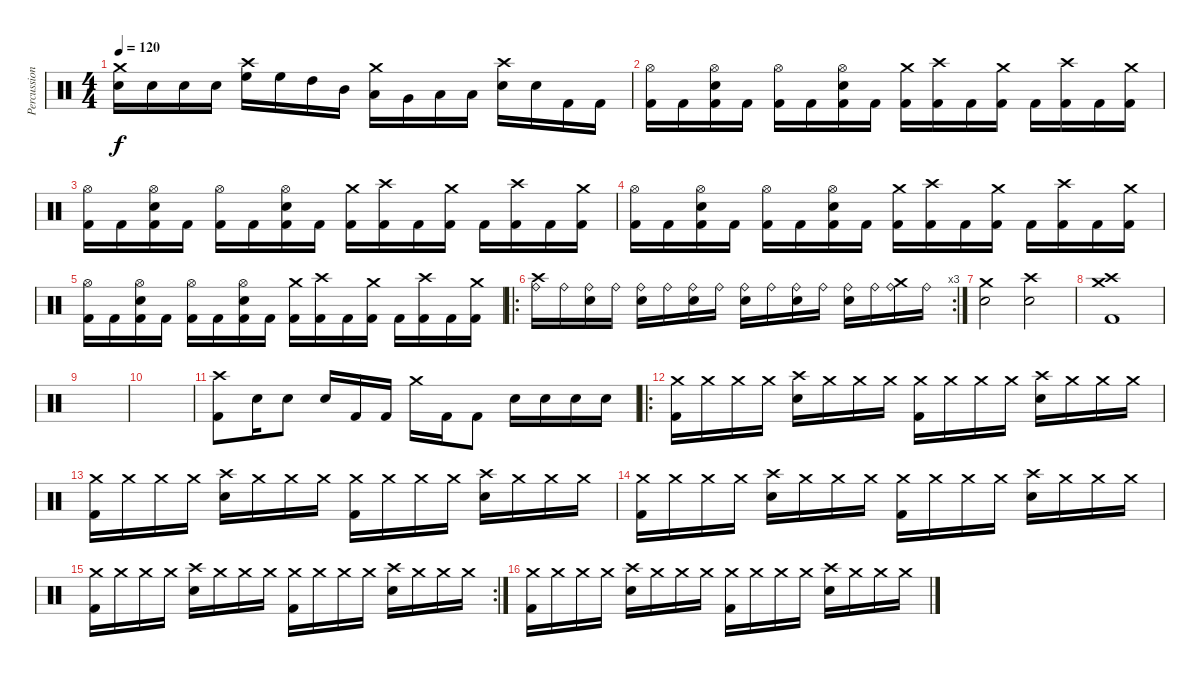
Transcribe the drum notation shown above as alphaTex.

\track ("Percussion" "Percussion") {instrument percussion}
\staff {score}
\articulation defaults
\ts (4 4)
\tempo 120
\clef neutral
\ks c
("Crash medium (hit)" "Electric Snare (hit)").16{dy f} "Electric Snare (hit)".16 "Electric Snare (hit)".16 "Electric Snare (hit)".16 ("Crash high (hit)" "High Floor Tom (hit)").16 "High Floor Tom (hit)".16 "High Tom (hit)".16 "Mid Tom (hit)".16 ("Crash medium (hit)" "Low Tom (hit)").16 "Very Low Tom (hit)".16 "Low Floor Tom (hit)".16 "Low Floor Tom (hit)".16 ("Crash high (hit)" "Electric Snare (hit)").16 "Electric Snare (hit)".16 "Kick (hit) 2".16 "Kick (hit) 2".16 |
("Hi-Hat (open)" "Kick (hit) 2").16 "Kick (hit) 2".16 ("Hi-Hat (open)" "Snare (hit) 2" "Kick (hit) 2").16 "Kick (hit) 2".16 ("Hi-Hat (open)" "Kick (hit) 2").16 "Kick (hit) 2".16 ("Hi-Hat (open)" "Snare (hit) 2" "Kick (hit) 2").16 "Kick (hit) 2".16 ("Crash medium (hit)" "Kick (hit) 2").16 ("Crash high (hit)" "Kick (hit) 2").16 "Kick (hit) 2".16 ("Crash medium (hit)" "Kick (hit) 2").16 "Kick (hit) 2".16 ("Crash high (hit)" "Kick (hit) 2").16 "Kick (hit) 2".16 ("Crash medium (hit)" "Kick (hit) 2").16 |
("Hi-Hat (open)" "Kick (hit) 2").16 "Kick (hit) 2".16 ("Hi-Hat (open)" "Snare (hit) 2" "Kick (hit) 2").16 "Kick (hit) 2".16 ("Hi-Hat (open)" "Kick (hit) 2").16 "Kick (hit) 2".16 ("Hi-Hat (open)" "Snare (hit) 2" "Kick (hit) 2").16 "Kick (hit) 2".16 ("Crash medium (hit)" "Kick (hit) 2").16 ("Crash high (hit)" "Kick (hit) 2").16 "Kick (hit) 2".16 ("Crash medium (hit)" "Kick (hit) 2").16 "Kick (hit) 2".16 ("Crash high (hit)" "Kick (hit) 2").16 "Kick (hit) 2".16 ("Crash medium (hit)" "Kick (hit) 2").16 |
("Hi-Hat (open)" "Kick (hit) 2").16 "Kick (hit) 2".16 ("Hi-Hat (open)" "Snare (hit) 2" "Kick (hit) 2").16 "Kick (hit) 2".16 ("Hi-Hat (open)" "Kick (hit) 2").16 "Kick (hit) 2".16 ("Hi-Hat (open)" "Snare (hit) 2" "Kick (hit) 2").16 "Kick (hit) 2".16 ("Crash medium (hit)" "Kick (hit) 2").16 ("Crash high (hit)" "Kick (hit) 2").16 "Kick (hit) 2".16 ("Crash medium (hit)" "Kick (hit) 2").16 "Kick (hit) 2".16 ("Crash high (hit)" "Kick (hit) 2").16 "Kick (hit) 2".16 ("Crash medium (hit)" "Kick (hit) 2").16 |
("Hi-Hat (open)" "Kick (hit) 2").16 "Kick (hit) 2".16 ("Hi-Hat (open)" "Snare (hit) 2" "Kick (hit) 2").16 "Kick (hit) 2".16 ("Hi-Hat (open)" "Kick (hit) 2").16 "Kick (hit) 2".16 ("Hi-Hat (open)" "Snare (hit) 2" "Kick (hit) 2").16 "Kick (hit) 2".16 ("Crash medium (hit)" "Kick (hit) 2").16 ("Crash high (hit)" "Kick (hit) 2").16 "Kick (hit) 2".16 ("Crash medium (hit)" "Kick (hit) 2").16 "Kick (hit) 2".16 ("Crash high (hit)" "Kick (hit) 2").16 "Kick (hit) 2".16 ("Crash medium (hit)" "Kick (hit) 2").16 |
\ro
\rc 3
("Crash high (hit)" "Ride (bell)").16 "Ride (bell)".16 ("Electric Snare (hit)" "Ride (bell)").16 "Ride (bell)".16 ("Electric Snare (hit)" "Ride (bell)").16 "Ride (bell)".16 ("Electric Snare (hit)" "Ride (bell)").16 "Ride (bell)".16 ("Electric Snare (hit)" "Ride (bell)").16 "Ride (bell)".16 ("Electric Snare (hit)" "Ride (bell)").16 "Ride (bell)".16 ("Electric Snare (hit)" "Ride (bell)").16 "Ride (bell)".16 ("Crash medium (hit)" "Ride (bell)").16 "Ride (bell)".16 |
("Crash medium (hit)" "Electric Snare (hit)").2 ("Crash high (hit)" "Electric Snare (hit)").2 |
("Crash medium (hit)" "Crash high (hit)" "Kick (hit) 2").1 |
|
|
("Crash high (hit)" "Kick (hit) 2").8 "Electric Snare (hit)".16 "Electric Snare (hit)".8 "Electric Snare (hit)".16 "Kick (hit) 2".16 "Kick (hit) 2".16 "Crash medium (hit)".16 "Kick (hit) 2".16 "Kick (hit) 2".8 "Electric Snare (hit)".16 "Electric Snare (hit)".16 "Electric Snare (hit)".16 "Electric Snare (hit)".16 |
\ro
("Crash medium (hit)" "Kick (hit) 2").16 "Crash medium (hit)".16 "Crash medium (hit)".16 "Crash medium (hit)".16 ("Crash high (hit)" "Electric Snare (hit)").16 "Crash medium (hit)".16 "Crash medium (hit)".16 "Crash medium (hit)".16 ("Crash medium (hit)" "Kick (hit) 2").16 "Crash medium (hit)".16 "Crash medium (hit)".16 "Crash medium (hit)".16 ("Crash high (hit)" "Electric Snare (hit)").16 "Crash medium (hit)".16 "Crash medium (hit)".16 "Crash medium (hit)".16 |
("Crash medium (hit)" "Kick (hit) 2").16 "Crash medium (hit)".16 "Crash medium (hit)".16 "Crash medium (hit)".16 ("Crash high (hit)" "Electric Snare (hit)").16 "Crash medium (hit)".16 "Crash medium (hit)".16 "Crash medium (hit)".16 ("Crash medium (hit)" "Kick (hit) 2").16 "Crash medium (hit)".16 "Crash medium (hit)".16 "Crash medium (hit)".16 ("Crash high (hit)" "Electric Snare (hit)").16 "Crash medium (hit)".16 "Crash medium (hit)".16 "Crash medium (hit)".16 |
("Crash medium (hit)" "Kick (hit) 2").16 "Crash medium (hit)".16 "Crash medium (hit)".16 "Crash medium (hit)".16 ("Crash high (hit)" "Electric Snare (hit)").16 "Crash medium (hit)".16 "Crash medium (hit)".16 "Crash medium (hit)".16 ("Crash medium (hit)" "Kick (hit) 2").16 "Crash medium (hit)".16 "Crash medium (hit)".16 "Crash medium (hit)".16 ("Crash high (hit)" "Electric Snare (hit)").16 "Crash medium (hit)".16 "Crash medium (hit)".16 "Crash medium (hit)".16 |
\rc 2
("Crash medium (hit)" "Kick (hit) 2").16 "Crash medium (hit)".16 "Crash medium (hit)".16 "Crash medium (hit)".16 ("Crash high (hit)" "Electric Snare (hit)").16 "Crash medium (hit)".16 "Crash medium (hit)".16 "Crash medium (hit)".16 ("Crash medium (hit)" "Kick (hit) 2").16 "Crash medium (hit)".16 "Crash medium (hit)".16 "Crash medium (hit)".16 ("Crash high (hit)" "Electric Snare (hit)").16 "Crash medium (hit)".16 "Crash medium (hit)".16 "Crash medium (hit)".16 |
("Crash medium (hit)" "Kick (hit) 2").16 "Crash medium (hit)".16 "Crash medium (hit)".16 "Crash medium (hit)".16 ("Crash high (hit)" "Electric Snare (hit)").16 "Crash medium (hit)".16 "Crash medium (hit)".16 "Crash medium (hit)".16 ("Crash medium (hit)" "Kick (hit) 2").16 "Crash medium (hit)".16 "Crash medium (hit)".16 "Crash medium (hit)".16 ("Crash high (hit)" "Electric Snare (hit)").16 "Crash medium (hit)".16 "Crash medium (hit)".16 "Crash medium (hit)".16
